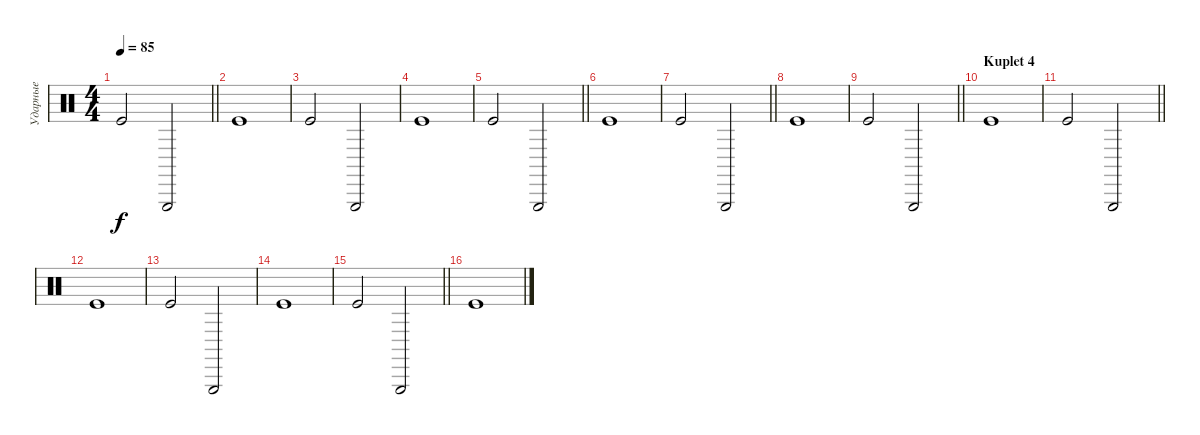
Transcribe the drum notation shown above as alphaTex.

\track ("Ударные" "Ударные") {instrument percussion}
\staff {score}
\articulation defaults
\ts (4 4)
\tempo 85
\clef neutral
\barLineRight lightlight
\ks c "Kick (hit)".2{dy f} "Triangle (hit)".2
|
"Kick (hit)".1 |
"Kick (hit)".2 "Triangle (hit)".2 |
"Kick (hit)".1 |
\barLineRight lightlight "Kick (hit)".2 "Triangle (hit)".2
|
"Kick (hit)".1 |
\barLineRight lightlight "Kick (hit)".2 "Triangle (hit)".2
|
"Kick (hit)".1 |
\barLineRight lightlight "Kick (hit)".2 "Triangle (hit)".2
|
\section ("" "Kuplet 4")
"Kick (hit)".1 |
\barLineRight lightlight "Kick (hit)".2 "Triangle (hit)".2
|
"Kick (hit)".1 |
"Kick (hit)".2 "Triangle (hit)".2 |
"Kick (hit)".1 |
\barLineRight lightlight "Kick (hit)".2 "Triangle (hit)".2
|
"Kick (hit)".1
